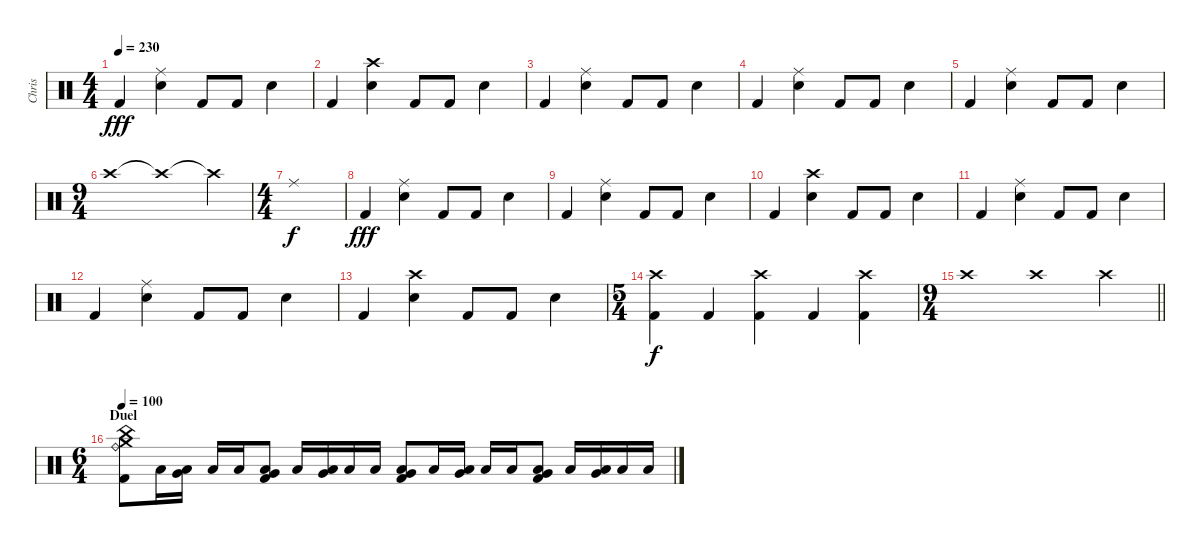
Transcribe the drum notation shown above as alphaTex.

\track ("Chris" "Chris") {instrument percussion}
\staff {score}
\articulation defaults
\ts (4 4)
\tempo 230
\clef neutral
\ks c "Kick (hit) 2".4{dy fff}
("Ride (middle)" "Electric Snare (hit)").4 "Kick (hit) 2".8 "Kick (hit) 2".8 "Electric Snare (hit)".4 |
"Kick (hit) 2".4 ("Crash high (hit)" "Electric Snare (hit)").4 "Kick (hit) 2".8 "Kick (hit) 2".8 "Electric Snare (hit)".4 |
"Kick (hit) 2".4 ("Ride (middle)" "Electric Snare (hit)").4 "Kick (hit) 2".8 "Kick (hit) 2".8 "Electric Snare (hit)".4 |
"Kick (hit) 2".4 ("Ride (middle)" "Electric Snare (hit)").4 "Kick (hit) 2".8 "Kick (hit) 2".8 "Electric Snare (hit)".4 |
"Kick (hit) 2".4 ("Ride (middle)" "Electric Snare (hit)").4 "Kick (hit) 2".8 "Kick (hit) 2".8 "Electric Snare (hit)".4 |
\ts (9 4)
"Crash high (hit)".1 "Crash high (hit)"{t}.1 "Crash high (hit)"{t}.4 |
\ts (4 4)
"Ride (middle)".1{dy f} |
"Kick (hit) 2".4{dy fff} ("Ride (middle)" "Electric Snare (hit)").4 "Kick (hit) 2".8 "Kick (hit) 2".8 "Electric Snare (hit)".4 |
"Kick (hit) 2".4 ("Ride (middle)" "Electric Snare (hit)").4 "Kick (hit) 2".8 "Kick (hit) 2".8 "Electric Snare (hit)".4 |
"Kick (hit) 2".4 ("Crash high (hit)" "Electric Snare (hit)").4 "Kick (hit) 2".8 "Kick (hit) 2".8 "Electric Snare (hit)".4 |
"Kick (hit) 2".4 ("Ride (middle)" "Electric Snare (hit)").4 "Kick (hit) 2".8 "Kick (hit) 2".8 "Electric Snare (hit)".4 |
"Kick (hit) 2".4 ("Ride (middle)" "Electric Snare (hit)").4 "Kick (hit) 2".8 "Kick (hit) 2".8 "Electric Snare (hit)".4 |
"Kick (hit) 2".4 ("Crash high (hit)" "Electric Snare (hit)").4 "Kick (hit) 2".8 "Kick (hit) 2".8 "Electric Snare (hit)".4 |
\ts (5 4)
("Kick (hit) 2" "Crash high (hit)").4{dy f} "Kick (hit) 2".4 ("Kick (hit) 2" "Crash high (hit)").4 "Kick (hit) 2".4 ("Kick (hit) 2" "Crash high (hit)").4 |
\ts (9 4)
\barLineRight lightlight "Crash high (hit)".1 "Crash high (hit)".1 "Crash high (hit)".4
|
\ts (6 4)
\section ("" "Duel ")
\tempo 100
("Crash medium (hit)" "Ride (bell)" "China (hit)" "Kick (hit) 2").8 "Low Floor Tom (hit)".16 ("Very Low Tom (hit)" "Low Floor Tom (hit)").16 "Low Floor Tom (hit)".16 "Low Floor Tom (hit)".16 ("Very Low Tom (hit)" "Low Floor Tom (hit)" "Kick (hit) 2").8 "Low Floor Tom (hit)".16 ("Very Low Tom (hit)" "Low Floor Tom (hit)").16 "Low Floor Tom (hit)".16 "Low Floor Tom (hit)".16 ("Very Low Tom (hit)" "Low Floor Tom (hit)" "Kick (hit) 2").8 "Low Floor Tom (hit)".16 ("Very Low Tom (hit)" "Low Floor Tom (hit)").16 "Low Floor Tom (hit)".16 "Low Floor Tom (hit)".16 ("Very Low Tom (hit)" "Low Floor Tom (hit)" "Kick (hit) 2").8 "Low Floor Tom (hit)".16 ("Very Low Tom (hit)" "Low Floor Tom (hit)").16 "Low Floor Tom (hit)".16 "Low Floor Tom (hit)".16
